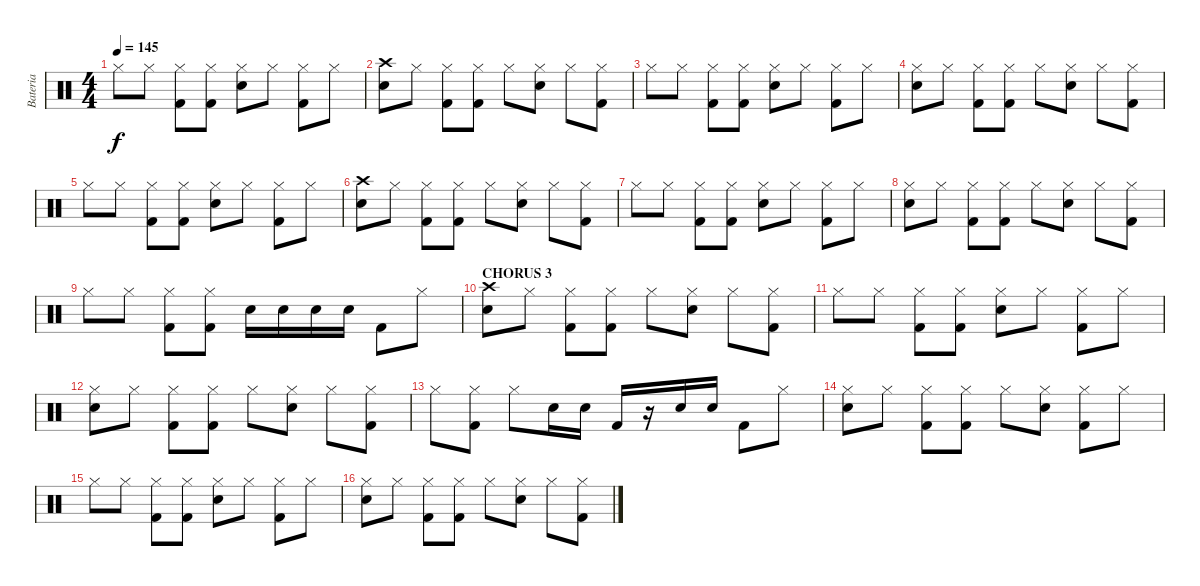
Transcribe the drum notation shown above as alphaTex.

\track ("Bateria" "Bateria") {instrument percussion}
\staff {score}
\articulation defaults
\ts (4 4)
\tempo 145
\clef neutral
\ks c "Hi-Hat (closed)".8{dy f} "Hi-Hat (closed)".8
("Hi-Hat (closed)" "Kick (hit) 2").8 ("Hi-Hat (closed)" "Kick (hit) 2").8 ("Hi-Hat (closed)" "Snare (hit) 2").8 "Hi-Hat (closed)".8 ("Hi-Hat (closed)" "Kick (hit) 2").8 "Hi-Hat (closed)".8 |
("Crash high (hit)" "Snare (hit) 2").8 "Hi-Hat (closed)".8 ("Hi-Hat (closed)" "Kick (hit) 2").8 ("Hi-Hat (closed)" "Kick (hit) 2").8 "Hi-Hat (closed)".8 ("Hi-Hat (closed)" "Snare (hit) 2").8 "Hi-Hat (closed)".8 ("Hi-Hat (closed)" "Kick (hit) 2").8 |
"Hi-Hat (closed)".8 "Hi-Hat (closed)".8 ("Hi-Hat (closed)" "Kick (hit) 2").8 ("Hi-Hat (closed)" "Kick (hit) 2").8 ("Hi-Hat (closed)" "Snare (hit) 2").8 "Hi-Hat (closed)".8 ("Hi-Hat (closed)" "Kick (hit) 2").8 "Hi-Hat (closed)".8 |
("Hi-Hat (closed)" "Snare (hit) 2").8 "Hi-Hat (closed)".8 ("Hi-Hat (closed)" "Kick (hit) 2").8 ("Hi-Hat (closed)" "Kick (hit) 2").8 "Hi-Hat (closed)".8 ("Hi-Hat (closed)" "Snare (hit) 2").8 "Hi-Hat (closed)".8 ("Hi-Hat (closed)" "Kick (hit) 2").8 |
"Hi-Hat (closed)".8 "Hi-Hat (closed)".8 ("Hi-Hat (closed)" "Kick (hit) 2").8 ("Hi-Hat (closed)" "Kick (hit) 2").8 ("Hi-Hat (closed)" "Snare (hit) 2").8 "Hi-Hat (closed)".8 ("Hi-Hat (closed)" "Kick (hit) 2").8 "Hi-Hat (closed)".8 |
("Crash high (hit)" "Snare (hit) 2").8 "Hi-Hat (closed)".8 ("Hi-Hat (closed)" "Kick (hit) 2").8 ("Hi-Hat (closed)" "Kick (hit) 2").8 "Hi-Hat (closed)".8 ("Hi-Hat (closed)" "Snare (hit) 2").8 "Hi-Hat (closed)".8 ("Hi-Hat (closed)" "Kick (hit) 2").8 |
"Hi-Hat (closed)".8 "Hi-Hat (closed)".8 ("Hi-Hat (closed)" "Kick (hit) 2").8 ("Hi-Hat (closed)" "Kick (hit) 2").8 ("Hi-Hat (closed)" "Snare (hit) 2").8 "Hi-Hat (closed)".8 ("Hi-Hat (closed)" "Kick (hit) 2").8 "Hi-Hat (closed)".8 |
("Hi-Hat (closed)" "Snare (hit) 2").8 "Hi-Hat (closed)".8 ("Hi-Hat (closed)" "Kick (hit) 2").8 ("Hi-Hat (closed)" "Kick (hit) 2").8 "Hi-Hat (closed)".8 ("Hi-Hat (closed)" "Snare (hit) 2").8 "Hi-Hat (closed)".8 ("Hi-Hat (closed)" "Kick (hit) 2").8 |
"Hi-Hat (closed)".8 "Hi-Hat (closed)".8 ("Hi-Hat (closed)" "Kick (hit) 2").8 ("Hi-Hat (closed)" "Kick (hit) 2").8 "Snare (hit) 2".16 "Snare (hit) 2".16 "Snare (hit) 2".16 "Snare (hit) 2".16 "Kick (hit) 2".8 "Hi-Hat (closed)".8 |
\section ("" "CHORUS 3")
("Crash high (hit)" "Snare (hit) 2").8 "Hi-Hat (closed)".8 ("Hi-Hat (closed)" "Kick (hit) 2").8 ("Hi-Hat (closed)" "Kick (hit) 2").8 "Hi-Hat (closed)".8 ("Hi-Hat (closed)" "Snare (hit) 2").8 "Hi-Hat (closed)".8 ("Hi-Hat (closed)" "Kick (hit) 2").8 |
"Hi-Hat (closed)".8 "Hi-Hat (closed)".8 ("Hi-Hat (closed)" "Kick (hit) 2").8 ("Hi-Hat (closed)" "Kick (hit) 2").8 ("Hi-Hat (closed)" "Snare (hit) 2").8 "Hi-Hat (closed)".8 ("Hi-Hat (closed)" "Kick (hit) 2").8 "Hi-Hat (closed)".8 |
("Hi-Hat (closed)" "Snare (hit) 2").8 "Hi-Hat (closed)".8 ("Hi-Hat (closed)" "Kick (hit) 2").8 ("Hi-Hat (closed)" "Kick (hit) 2").8 "Hi-Hat (closed)".8 ("Hi-Hat (closed)" "Snare (hit) 2").8 "Hi-Hat (closed)".8 ("Hi-Hat (closed)" "Kick (hit) 2").8 |
"Hi-Hat (closed)".8 ("Hi-Hat (closed)" "Kick (hit) 2").8 "Hi-Hat (closed)".8 "Snare (hit) 2".16 "Snare (hit) 2".16 "Kick (hit) 2".16 r.16 "Snare (hit) 2".16 "Snare (hit) 2".16 "Kick (hit) 2".8 "Hi-Hat (closed)".8 |
("Hi-Hat (closed)" "Snare (hit) 2").8 "Hi-Hat (closed)".8 ("Hi-Hat (closed)" "Kick (hit) 2").8 ("Hi-Hat (closed)" "Kick (hit) 2").8 "Hi-Hat (closed)".8 ("Hi-Hat (closed)" "Snare (hit) 2").8 ("Hi-Hat (closed)" "Kick (hit) 2").8 "Hi-Hat (closed)".8 |
"Hi-Hat (closed)".8 "Hi-Hat (closed)".8 ("Hi-Hat (closed)" "Kick (hit) 2").8 ("Hi-Hat (closed)" "Kick (hit) 2").8 ("Hi-Hat (closed)" "Snare (hit) 2").8 "Hi-Hat (closed)".8 ("Hi-Hat (closed)" "Kick (hit) 2").8 "Hi-Hat (closed)".8 |
("Hi-Hat (closed)" "Snare (hit) 2").8 "Hi-Hat (closed)".8 ("Hi-Hat (closed)" "Kick (hit) 2").8 ("Hi-Hat (closed)" "Kick (hit) 2").8 "Hi-Hat (closed)".8 ("Hi-Hat (closed)" "Snare (hit) 2").8 "Hi-Hat (closed)".8 ("Hi-Hat (closed)" "Kick (hit) 2").8
